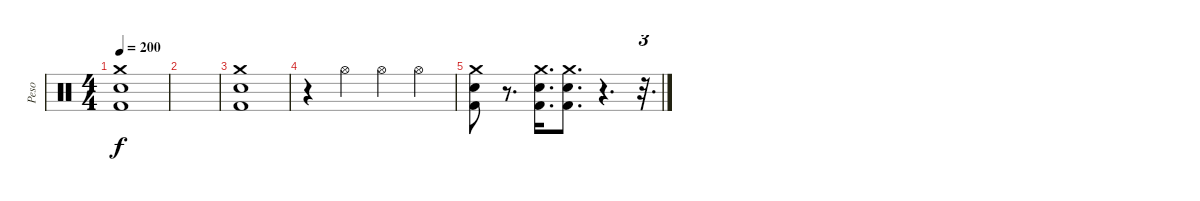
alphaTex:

\track ("Peso" "Peso") {instrument percussion}
\staff {score}
\articulation defaults
\ts (4 4)
\tempo 200
\clef neutral
\ks c
("Crash medium (hit)" "Electric Snare (hit)" "Kick (hit) 2").1{dy f} |
|
("Crash medium (hit)" "Electric Snare (hit)" "Kick (hit) 2").1 |
r.4 "Hi-Hat (open)".4 "Hi-Hat (open)".4 "Hi-Hat (open)".4 |
("Crash medium (hit)" "Electric Snare (hit)" "Kick (hit) 2").8 r.8{d} ("Crash medium (hit)" "Electric Snare (hit)" "Kick (hit) 2").16{d} ("Crash medium (hit)" "Electric Snare (hit)" "Kick (hit) 2").8{d} r.4{d} r.32{d tu (3 2)}
